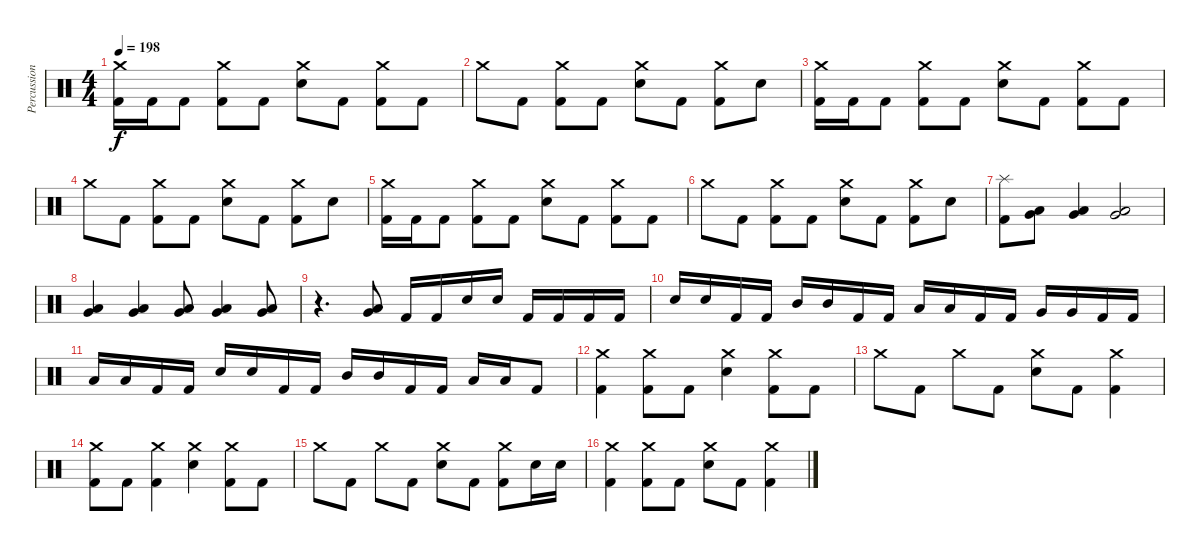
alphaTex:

\track ("Percussion" "Percussion") {instrument percussion}
\staff {score}
\articulation defaults
\ts (4 4)
\tempo 198
\clef neutral
\ks c
("Crash medium (hit)" "Kick (hit) 2").16{dy f} "Kick (hit) 2".16 "Kick (hit) 2".8 ("Crash medium (hit)" "Kick (hit) 2").8 "Kick (hit) 2".8 ("Crash medium (hit)" "Electric Snare (hit)").8 "Kick (hit) 2".8 ("Crash medium (hit)" "Kick (hit) 2").8 "Kick (hit) 2".8 |
"Crash medium (hit)".8 "Kick (hit) 2".8 ("Crash medium (hit)" "Kick (hit) 2").8 "Kick (hit) 2".8 ("Crash medium (hit)" "Electric Snare (hit)").8 "Kick (hit) 2".8 ("Crash medium (hit)" "Kick (hit) 2").8 "Electric Snare (hit)".8 |
("Crash medium (hit)" "Kick (hit) 2").16 "Kick (hit) 2".16 "Kick (hit) 2".8 ("Crash medium (hit)" "Kick (hit) 2").8 "Kick (hit) 2".8 ("Crash medium (hit)" "Electric Snare (hit)").8 "Kick (hit) 2".8 ("Crash medium (hit)" "Kick (hit) 2").8 "Kick (hit) 2".8 |
"Crash medium (hit)".8 "Kick (hit) 2".8 ("Crash medium (hit)" "Kick (hit) 2").8 "Kick (hit) 2".8 ("Crash medium (hit)" "Electric Snare (hit)").8 "Kick (hit) 2".8 ("Crash medium (hit)" "Kick (hit) 2").8 "Electric Snare (hit)".8 |
("Crash medium (hit)" "Kick (hit) 2").16 "Kick (hit) 2".16 "Kick (hit) 2".8 ("Crash medium (hit)" "Kick (hit) 2").8 "Kick (hit) 2".8 ("Crash medium (hit)" "Electric Snare (hit)").8 "Kick (hit) 2".8 ("Crash medium (hit)" "Kick (hit) 2").8 "Kick (hit) 2".8 |
"Crash medium (hit)".8 "Kick (hit) 2".8 ("Crash medium (hit)" "Kick (hit) 2").8 "Kick (hit) 2".8 ("Crash medium (hit)" "Electric Snare (hit)").8 "Kick (hit) 2".8 ("Crash medium (hit)" "Kick (hit) 2").8 "Electric Snare (hit)".8 |
("Splash (hit)" "Kick (hit) 2").8 ("Low Floor Tom (hit)" "Very Low Tom (hit)").8 ("Low Floor Tom (hit)" "Very Low Tom (hit)").4 ("Low Floor Tom (hit)" "Very Low Tom (hit)").2 |
("Low Floor Tom (hit)" "Very Low Tom (hit)").4 ("Low Floor Tom (hit)" "Very Low Tom (hit)").4 ("Low Floor Tom (hit)" "Very Low Tom (hit)").8 ("Low Floor Tom (hit)" "Very Low Tom (hit)").4 ("Low Floor Tom (hit)" "Very Low Tom (hit)").8 |
r.4{d} ("Very Low Tom (hit)" "Low Floor Tom (hit)").8 "Kick (hit) 2".16 "Kick (hit) 2".16 "Electric Snare (hit)".16 "Electric Snare (hit)".16 "Kick (hit) 2".16 "Kick (hit) 2".16 "Kick (hit) 2".16 "Kick (hit) 2".16 |
"Electric Snare (hit)".16 "Electric Snare (hit)".16 "Kick (hit) 2".16 "Kick (hit) 2".16 "Mid Tom (hit)".16 "Mid Tom (hit)".16 "Kick (hit) 2".16 "Kick (hit) 2".16 "Low Tom (hit)".16 "Low Tom (hit)".16 "Kick (hit) 2".16 "Kick (hit) 2".16 "Very Low Tom (hit)".16 "Very Low Tom (hit)".16 "Kick (hit) 2".16 "Kick (hit) 2".16 |
"Low Floor Tom (hit)".16 "Low Floor Tom (hit)".16 "Kick (hit) 2".16 "Kick (hit) 2".16 "Electric Snare (hit)".16 "Electric Snare (hit)".16 "Kick (hit) 2".16 "Kick (hit) 2".16 "Mid Tom (hit)".16 "Mid Tom (hit)".16 "Kick (hit) 2".16 "Kick (hit) 2".16 "Low Tom (hit)".16 "Low Tom (hit)".16 "Kick (hit) 2".8 |
("Crash medium (hit)" "Kick (hit) 2").4 ("Crash medium (hit)" "Kick (hit) 2").8 "Kick (hit) 2".8 ("Crash medium (hit)" "Electric Snare (hit)").4 ("Crash medium (hit)" "Kick (hit) 2").8 "Kick (hit) 2".8 |
"Crash medium (hit)".8 "Kick (hit) 2".8 "Crash medium (hit)".8 "Kick (hit) 2".8 ("Crash medium (hit)" "Electric Snare (hit)").8 "Kick (hit) 2".8 ("Crash medium (hit)" "Kick (hit) 2").4 |
("Crash medium (hit)" "Kick (hit) 2").8 "Kick (hit) 2".8 ("Crash medium (hit)" "Kick (hit) 2").4 ("Crash medium (hit)" "Electric Snare (hit)").4 ("Crash medium (hit)" "Kick (hit) 2").8 "Kick (hit) 2".8 |
"Crash medium (hit)".8 "Kick (hit) 2".8 "Crash medium (hit)".8 "Kick (hit) 2".8 ("Crash medium (hit)" "Electric Snare (hit)").8 "Kick (hit) 2".8 ("Crash medium (hit)" "Kick (hit) 2").8 "Electric Snare (hit)".16 "Electric Snare (hit)".16 |
("Crash medium (hit)" "Kick (hit) 2").4 ("Crash medium (hit)" "Kick (hit) 2").8 "Kick (hit) 2".8 ("Crash medium (hit)" "Electric Snare (hit)").8 "Kick (hit) 2".8 ("Crash medium (hit)" "Kick (hit) 2").4
